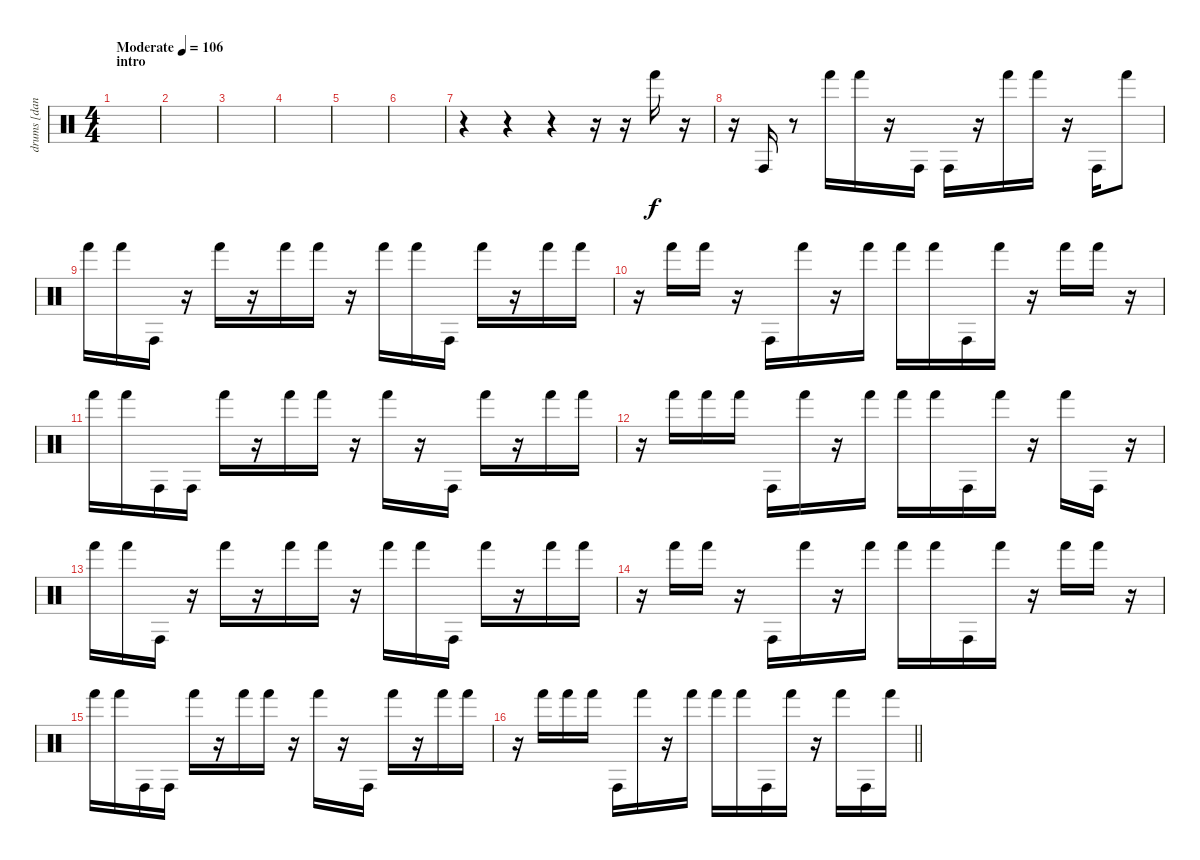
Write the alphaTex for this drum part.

\track ("drums [danny carey]" "drums [dan") {instrument percussion}
\staff {score}
\articulation defaults
\ts (4 4)
\section ("" "intro")
\tempo (106 "Moderate")
\clef neutral
\ks c
|
|
|
|
|
|
r.4{volume 8} r.4 r.4 r.16 r.16 "Hand (hit)".16 r.16 |
r.16 "Conga high (hit)".16 r.8 "Hand (hit)".16 "Hand (hit)".16 r.16 "Conga high (hit)".16 "Conga high (hit)".16 r.16 "Hand (hit)".16 "Hand (hit)".16 r.16 "Conga high (hit)".16 "Hand (hit)".8 |
"Hand (hit)".16 "Hand (hit)".16 "Conga high (hit)".16 r.16 "Hand (hit)".16 r.16 "Hand (hit)".16 "Hand (hit)".16 r.16 "Hand (hit)".16 "Hand (hit)".16 "Conga high (hit)".16 "Hand (hit)".16 r.16 "Hand (hit)".16 "Hand (hit)".16 |
r.16 "Hand (hit)".16 "Hand (hit)".16 r.16 "Conga high (hit)".16 "Hand (hit)".16 r.16 "Hand (hit)".16 "Hand (hit)".16 "Hand (hit)".16 "Conga high (hit)".16 "Hand (hit)".16 r.16 "Hand (hit)".16 "Hand (hit)".16 r.16 |
"Hand (hit)".16 "Hand (hit)".16 "Conga high (hit)".16 "Conga high (hit)".16 "Hand (hit)".16 r.16 "Hand (hit)".16 "Hand (hit)".16 r.16 "Hand (hit)".16 r.16 "Conga high (hit)".16 "Hand (hit)".16 r.16 "Hand (hit)".16 "Hand (hit)".16 |
r.16 "Hand (hit)".16 "Hand (hit)".16 "Hand (hit)".16 "Conga high (hit)".16 "Hand (hit)".16 r.16 "Hand (hit)".16 "Hand (hit)".16 "Hand (hit)".16 "Conga high (hit)".16 "Hand (hit)".16 r.16 "Hand (hit)".16 "Conga high (hit)".16 r.16 |
"Hand (hit)".16 "Hand (hit)".16 "Conga high (hit)".16 r.16 "Hand (hit)".16 r.16 "Hand (hit)".16 "Hand (hit)".16 r.16 "Hand (hit)".16 "Hand (hit)".16 "Conga high (hit)".16 "Hand (hit)".16 r.16 "Hand (hit)".16 "Hand (hit)".16 |
r.16 "Hand (hit)".16 "Hand (hit)".16 r.16 "Conga high (hit)".16 "Hand (hit)".16 r.16 "Hand (hit)".16 "Hand (hit)".16 "Hand (hit)".16 "Conga high (hit)".16 "Hand (hit)".16 r.16 "Hand (hit)".16 "Hand (hit)".16 r.16 |
"Hand (hit)".16 "Hand (hit)".16 "Conga high (hit)".16 "Conga high (hit)".16 "Hand (hit)".16 r.16 "Hand (hit)".16 "Hand (hit)".16 r.16 "Hand (hit)".16 r.16 "Conga high (hit)".16 "Hand (hit)".16 r.16 "Hand (hit)".16 "Hand (hit)".16 |
\barLineRight lightlight
r.16 "Hand (hit)".16 "Hand (hit)".16 "Hand (hit)".16 "Conga high (hit)".16 "Hand (hit)".16 r.16 "Hand (hit)".16 "Hand (hit)".16 "Hand (hit)".16 "Conga high (hit)".16 "Hand (hit)".16 r.16 "Hand (hit)".16 "Conga high (hit)".16 "Hand (hit)".16
